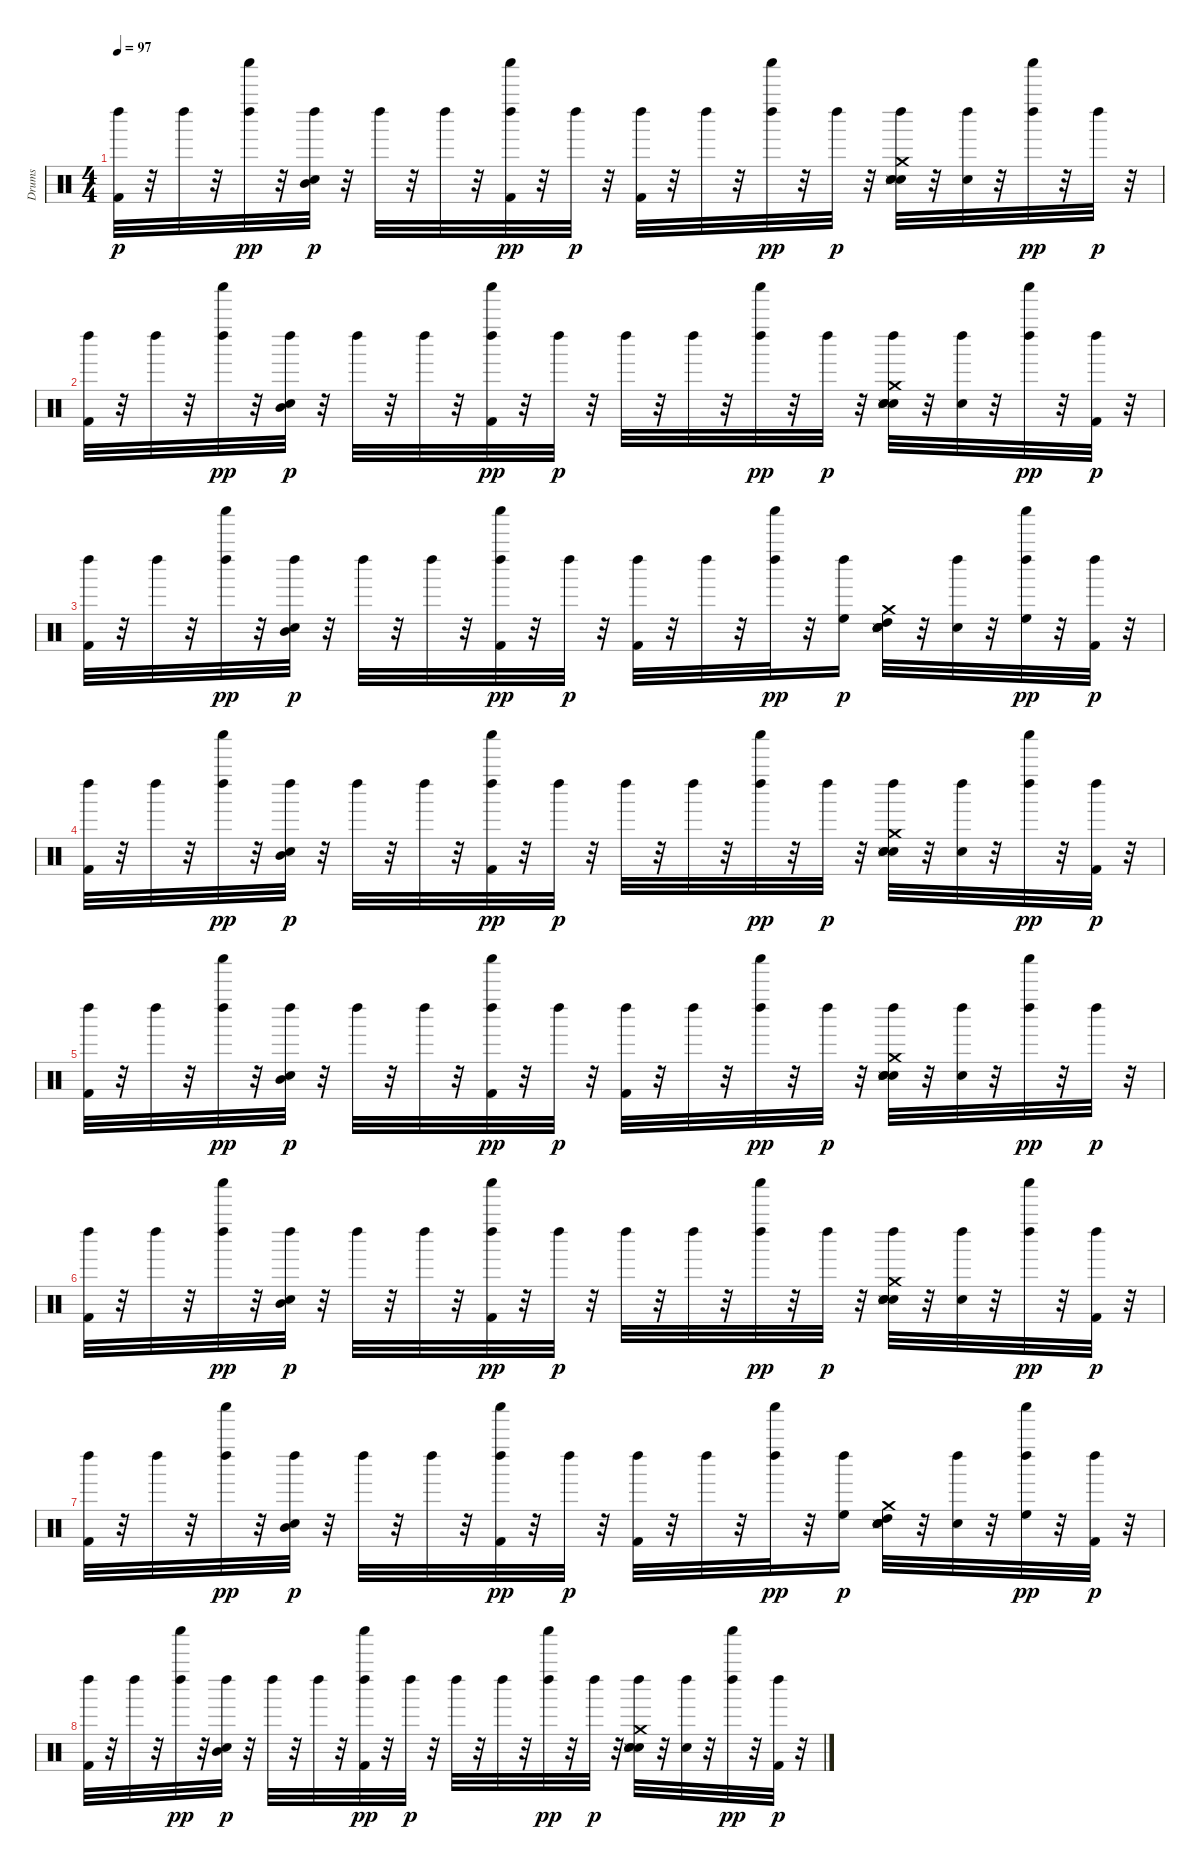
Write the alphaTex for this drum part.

\track ("Drums" "Drums") {instrument percussion}
\staff {score}
\articulation defaults
\ts (4 4)
\tempo 97
\clef neutral
\ks c
("Kick (hit) 2" "Left Maraca (hit)").32{dy p} r.32 "Left Maraca (hit)".32 r.32 ("Shaker (hit)" "Left Maraca (hit)").32{dy pp} r.32 ("Snare (hit) 2" "Mid Tom (hit)" "Left Maraca (hit)").32{dy p} r.32 "Left Maraca (hit)".32 r.32 "Left Maraca (hit)".32 r.32 ("Kick (hit) 2" "Shaker (hit)" "Left Maraca (hit)").32{dy pp} r.32 "Left Maraca (hit)".32{dy p} r.32 ("Kick (hit) 2" "Left Maraca (hit)").32 r.32 "Left Maraca (hit)".32 r.32 ("Shaker (hit)" "Left Maraca (hit)").32{dy pp} r.32 "Left Maraca (hit)".32{dy p} r.32 ("Snare (hit) 2" "Electric Snare (hit)" "Hand Clap (hit)" "Snare (side stick) 3" "Crash medium (hit)" "Left Maraca (hit)").32 r.32 ("Left Maraca (hit)" "Hand Clap (hit)").32 r.32 ("Shaker (hit)" "Left Maraca (hit)").32{dy pp} r.32 "Left Maraca (hit)".32{dy p} r.32 |
("Kick (hit) 2" "Left Maraca (hit)").32 r.32 "Left Maraca (hit)".32 r.32 ("Shaker (hit)" "Left Maraca (hit)").32{dy pp} r.32 ("Snare (hit) 2" "Mid Tom (hit)" "Left Maraca (hit)").32{dy p} r.32 "Left Maraca (hit)".32 r.32 "Left Maraca (hit)".32 r.32 ("Kick (hit) 2" "Shaker (hit)" "Left Maraca (hit)").32{dy pp} r.32 "Left Maraca (hit)".32{dy p} r.32 "Left Maraca (hit)".32 r.32 "Left Maraca (hit)".32 r.32 ("Shaker (hit)" "Left Maraca (hit)").32{dy pp} r.32 "Left Maraca (hit)".32{dy p} r.32 ("Snare (hit) 2" "Electric Snare (hit)" "Hand Clap (hit)" "Snare (side stick) 3" "Crash medium (hit)" "Left Maraca (hit)").32 r.32 ("Left Maraca (hit)" "Hand Clap (hit)").32 r.32 ("Shaker (hit)" "Left Maraca (hit)").32{dy pp} r.32 ("Kick (hit) 2" "Left Maraca (hit)").32{dy p} r.32 |
("Kick (hit) 2" "Left Maraca (hit)").32 r.32 "Left Maraca (hit)".32 r.32 ("Shaker (hit)" "Left Maraca (hit)").32{dy pp} r.32 ("Snare (hit) 2" "Mid Tom (hit)" "Left Maraca (hit)").32{dy p} r.32 "Left Maraca (hit)".32 r.32 "Left Maraca (hit)".32 r.32 ("Kick (hit) 2" "Shaker (hit)" "Left Maraca (hit)").32{dy pp} r.32 "Left Maraca (hit)".32{dy p} r.32 ("Kick (hit) 2" "Left Maraca (hit)").32 r.32 "Left Maraca (hit)".32 r.32 ("Shaker (hit)" "Left Maraca (hit)").32{dy pp} r.32 ("High Floor Tom (hit)" "Left Maraca (hit)").16{dy p} ("Snare (hit) 2" "Electric Snare (hit)" "Hand Clap (hit)" "High Tom (hit)" "Snare (side stick) 3" "Crash medium (hit)").32 r.32 ("Left Maraca (hit)" "Hand Clap (hit)").32 r.32 ("High Floor Tom (hit)" "Shaker (hit)" "Left Maraca (hit)").32{dy pp} r.32 ("Kick (hit) 2" "Left Maraca (hit)").32{dy p} r.32 |
("Kick (hit) 2" "Left Maraca (hit)").32 r.32 "Left Maraca (hit)".32 r.32 ("Shaker (hit)" "Left Maraca (hit)").32{dy pp} r.32 ("Snare (hit) 2" "Mid Tom (hit)" "Left Maraca (hit)").32{dy p} r.32 "Left Maraca (hit)".32 r.32 "Left Maraca (hit)".32 r.32 ("Kick (hit) 2" "Shaker (hit)" "Left Maraca (hit)").32{dy pp} r.32 "Left Maraca (hit)".32{dy p} r.32 "Left Maraca (hit)".32 r.32 "Left Maraca (hit)".32 r.32 ("Shaker (hit)" "Left Maraca (hit)").32{dy pp} r.32 "Left Maraca (hit)".32{dy p} r.32 ("Snare (hit) 2" "Electric Snare (hit)" "Hand Clap (hit)" "Snare (side stick) 3" "Crash medium (hit)" "Left Maraca (hit)").32 r.32 ("Left Maraca (hit)" "Hand Clap (hit)").32 r.32 ("Shaker (hit)" "Left Maraca (hit)").32{dy pp} r.32 ("Kick (hit) 2" "Left Maraca (hit)").32{dy p} r.32 |
("Kick (hit) 2" "Left Maraca (hit)").32 r.32 "Left Maraca (hit)".32 r.32 ("Shaker (hit)" "Left Maraca (hit)").32{dy pp} r.32 ("Snare (hit) 2" "Mid Tom (hit)" "Left Maraca (hit)").32{dy p} r.32 "Left Maraca (hit)".32 r.32 "Left Maraca (hit)".32 r.32 ("Kick (hit) 2" "Shaker (hit)" "Left Maraca (hit)").32{dy pp} r.32 "Left Maraca (hit)".32{dy p} r.32 ("Kick (hit) 2" "Left Maraca (hit)").32 r.32 "Left Maraca (hit)".32 r.32 ("Shaker (hit)" "Left Maraca (hit)").32{dy pp} r.32 "Left Maraca (hit)".32{dy p} r.32 ("Snare (hit) 2" "Electric Snare (hit)" "Hand Clap (hit)" "Snare (side stick) 3" "Crash medium (hit)" "Left Maraca (hit)").32 r.32 ("Left Maraca (hit)" "Hand Clap (hit)").32 r.32 ("Shaker (hit)" "Left Maraca (hit)").32{dy pp} r.32 "Left Maraca (hit)".32{dy p} r.32 |
("Kick (hit) 2" "Left Maraca (hit)").32 r.32 "Left Maraca (hit)".32 r.32 ("Shaker (hit)" "Left Maraca (hit)").32{dy pp} r.32 ("Snare (hit) 2" "Mid Tom (hit)" "Left Maraca (hit)").32{dy p} r.32 "Left Maraca (hit)".32 r.32 "Left Maraca (hit)".32 r.32 ("Kick (hit) 2" "Shaker (hit)" "Left Maraca (hit)").32{dy pp} r.32 "Left Maraca (hit)".32{dy p} r.32 "Left Maraca (hit)".32 r.32 "Left Maraca (hit)".32 r.32 ("Shaker (hit)" "Left Maraca (hit)").32{dy pp} r.32 "Left Maraca (hit)".32{dy p} r.32 ("Snare (hit) 2" "Electric Snare (hit)" "Hand Clap (hit)" "Snare (side stick) 3" "Crash medium (hit)" "Left Maraca (hit)").32 r.32 ("Left Maraca (hit)" "Hand Clap (hit)").32 r.32 ("Shaker (hit)" "Left Maraca (hit)").32{dy pp} r.32 ("Kick (hit) 2" "Left Maraca (hit)").32{dy p} r.32 |
("Kick (hit) 2" "Left Maraca (hit)").32 r.32 "Left Maraca (hit)".32 r.32 ("Shaker (hit)" "Left Maraca (hit)").32{dy pp} r.32 ("Snare (hit) 2" "Mid Tom (hit)" "Left Maraca (hit)").32{dy p} r.32 "Left Maraca (hit)".32 r.32 "Left Maraca (hit)".32 r.32 ("Kick (hit) 2" "Shaker (hit)" "Left Maraca (hit)").32{dy pp} r.32 "Left Maraca (hit)".32{dy p} r.32 ("Kick (hit) 2" "Left Maraca (hit)").32 r.32 "Left Maraca (hit)".32 r.32 ("Shaker (hit)" "Left Maraca (hit)").32{dy pp} r.32 ("High Floor Tom (hit)" "Left Maraca (hit)").16{dy p} ("Snare (hit) 2" "Electric Snare (hit)" "Hand Clap (hit)" "High Tom (hit)" "Snare (side stick) 3" "Crash medium (hit)").32 r.32 ("Left Maraca (hit)" "Hand Clap (hit)").32 r.32 ("High Floor Tom (hit)" "Shaker (hit)" "Left Maraca (hit)").32{dy pp} r.32 ("Kick (hit) 2" "Left Maraca (hit)").32{dy p} r.32 |
("Kick (hit) 2" "Left Maraca (hit)").32 r.32 "Left Maraca (hit)".32 r.32 ("Shaker (hit)" "Left Maraca (hit)").32{dy pp} r.32 ("Snare (hit) 2" "Mid Tom (hit)" "Left Maraca (hit)").32{dy p} r.32 "Left Maraca (hit)".32 r.32 "Left Maraca (hit)".32 r.32 ("Kick (hit) 2" "Shaker (hit)" "Left Maraca (hit)").32{dy pp} r.32 "Left Maraca (hit)".32{dy p} r.32 "Left Maraca (hit)".32 r.32 "Left Maraca (hit)".32 r.32 ("Shaker (hit)" "Left Maraca (hit)").32{dy pp} r.32 "Left Maraca (hit)".32{dy p} r.32 ("Snare (hit) 2" "Electric Snare (hit)" "Hand Clap (hit)" "Snare (side stick) 3" "Crash medium (hit)" "Left Maraca (hit)").32 r.32 ("Left Maraca (hit)" "Hand Clap (hit)").32 r.32 ("Shaker (hit)" "Left Maraca (hit)").32{dy pp} r.32 ("Kick (hit) 2" "Left Maraca (hit)").32{dy p} r.32
